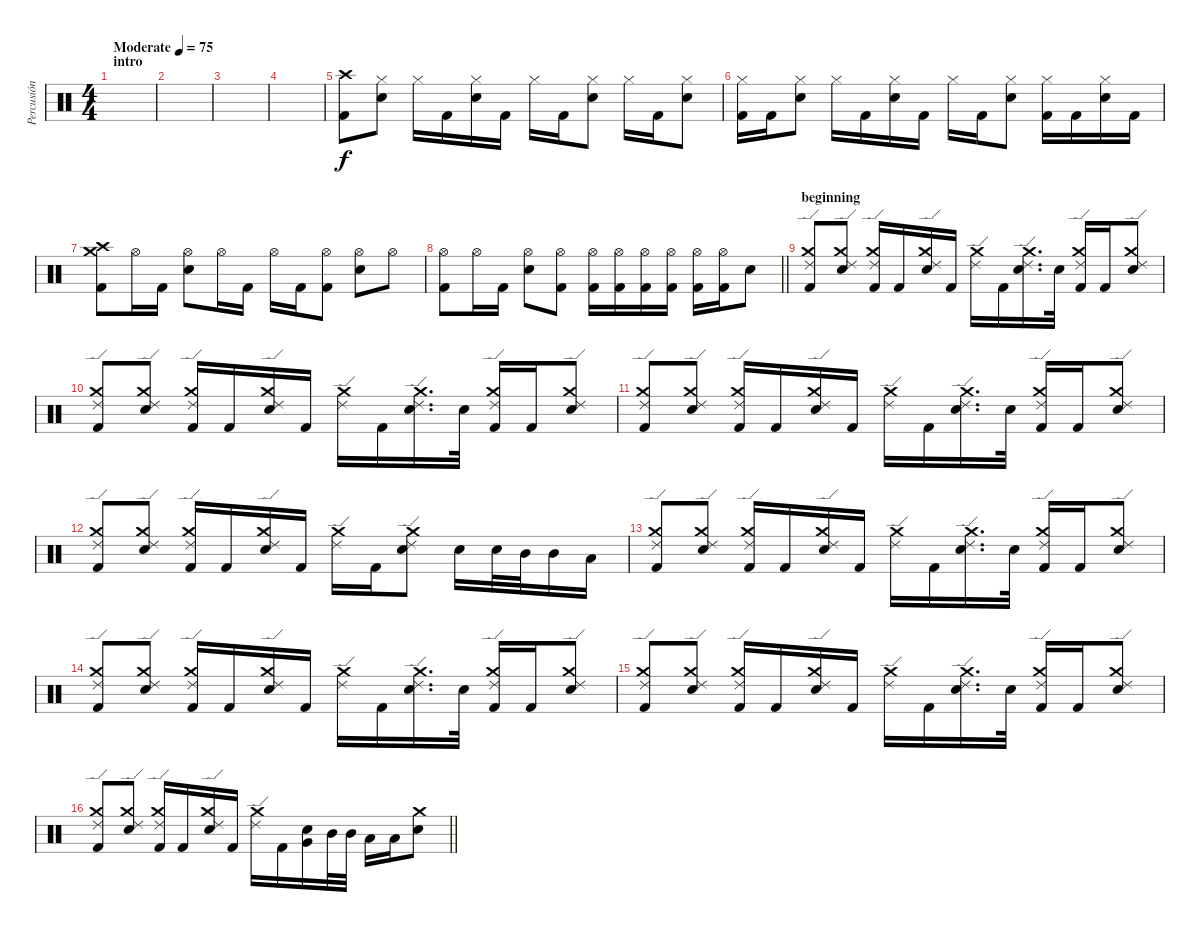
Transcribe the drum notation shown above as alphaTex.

\track ("Percusión" "Percusión") {instrument percussion}
\staff {score}
\articulation defaults
\ts (4 4)
\section ("" "intro")
\tempo (75 "Moderate")
\clef neutral
\ks c
|
|
|
|
("Kick (hit) 2" "Crash high (hit)").8 ("Electric Snare (hit)" "Hi-Hat (closed)").8 "Hi-Hat (closed)".16 "Kick (hit) 2".16 ("Electric Snare (hit)" "Hi-Hat (closed)").16 "Kick (hit) 2".16 "Hi-Hat (closed)".16 "Kick (hit) 2".16 ("Electric Snare (hit)" "Hi-Hat (closed)").8 "Hi-Hat (closed)".16 "Kick (hit) 2".16 ("Electric Snare (hit)" "Hi-Hat (closed)").8 |
("Kick (hit) 2" "Hi-Hat (closed)").16 "Kick (hit) 2".16 ("Electric Snare (hit)" "Hi-Hat (closed)").8 "Hi-Hat (closed)".16 "Kick (hit) 2".16 ("Electric Snare (hit)" "Hi-Hat (closed)").16 "Kick (hit) 2".16 "Hi-Hat (closed)".16 "Kick (hit) 2".16 ("Electric Snare (hit)" "Hi-Hat (closed)").8 ("Kick (hit) 2" "Hi-Hat (closed)").16 "Kick (hit) 2".16 ("Electric Snare (hit)" "Hi-Hat (closed)").16 "Kick (hit) 2".16 |
("Kick (hit) 2" "Crash high (hit)" "Crash medium (hit)").8 "Hi-Hat (open)".16 "Kick (hit) 2".16 ("Electric Snare (hit)" "Hi-Hat (open)").8 "Hi-Hat (open)".16 "Kick (hit) 2".16 "Hi-Hat (open)".16 "Kick (hit) 2".16 ("Kick (hit) 2" "Hi-Hat (open)").8 ("Electric Snare (hit)" "Hi-Hat (open)").8 "Hi-Hat (open)".8 |
\barLineRight lightlight
("Kick (hit) 2" "Hi-Hat (open)").8 "Hi-Hat (open)".16 "Kick (hit) 2".16 ("Electric Snare (hit)" "Hi-Hat (open)").8 ("Kick (hit) 2" "Hi-Hat (open)").8 ("Kick (hit) 2" "Hi-Hat (open)").16 ("Kick (hit) 2" "Hi-Hat (open)").16 ("Kick (hit) 2" "Hi-Hat (open)").16 ("Kick (hit) 2" "Hi-Hat (open)").16 ("Kick (hit) 2" "Hi-Hat (open)").16 ("Kick (hit) 2" "Hi-Hat (open)").16 "Electric Snare (hit)".8 |
\section ("" "beginning")
("Kick (hit) 2" "Ride (edge) 2" "Crash medium (hit)").8 ("Electric Snare (hit)" "Ride (edge) 2" "Crash medium (hit)").8 ("Kick (hit) 2" "Ride (edge) 2" "Crash medium (hit)").16 "Kick (hit) 2".16 ("Electric Snare (hit)" "Ride (edge) 2" "Crash medium (hit)").16 "Kick (hit) 2".16 ("Ride (edge) 2" "Crash medium (hit)").16 "Kick (hit) 2".16 ("Electric Snare (hit)" "Ride (edge) 2" "Crash medium (hit)").16{d} "Electric Snare (hit)".32 ("Kick (hit) 2" "Ride (edge) 2" "Crash medium (hit)").16 "Kick (hit) 2".16 ("Electric Snare (hit)" "Ride (edge) 2" "Crash medium (hit)").8 |
("Kick (hit) 2" "Ride (edge) 2" "Crash medium (hit)").8 ("Electric Snare (hit)" "Ride (edge) 2" "Crash medium (hit)").8 ("Kick (hit) 2" "Ride (edge) 2" "Crash medium (hit)").16 "Kick (hit) 2".16 ("Electric Snare (hit)" "Ride (edge) 2" "Crash medium (hit)").16 "Kick (hit) 2".16 ("Ride (edge) 2" "Crash medium (hit)").16 "Kick (hit) 2".16 ("Electric Snare (hit)" "Ride (edge) 2" "Crash medium (hit)").16{d} "Electric Snare (hit)".32 ("Kick (hit) 2" "Ride (edge) 2" "Crash medium (hit)").16 "Kick (hit) 2".16 ("Electric Snare (hit)" "Ride (edge) 2" "Crash medium (hit)").8 |
("Kick (hit) 2" "Ride (edge) 2" "Crash medium (hit)").8 ("Electric Snare (hit)" "Ride (edge) 2" "Crash medium (hit)").8 ("Kick (hit) 2" "Ride (edge) 2" "Crash medium (hit)").16 "Kick (hit) 2".16 ("Electric Snare (hit)" "Ride (edge) 2" "Crash medium (hit)").16 "Kick (hit) 2".16 ("Ride (edge) 2" "Crash medium (hit)").16 "Kick (hit) 2".16 ("Electric Snare (hit)" "Ride (edge) 2" "Crash medium (hit)").16{d} "Electric Snare (hit)".32 ("Kick (hit) 2" "Ride (edge) 2" "Crash medium (hit)").16 "Kick (hit) 2".16 ("Electric Snare (hit)" "Ride (edge) 2" "Crash medium (hit)").8 |
("Kick (hit) 2" "Ride (edge) 2" "Crash medium (hit)").8 ("Electric Snare (hit)" "Ride (edge) 2" "Crash medium (hit)").8 ("Kick (hit) 2" "Ride (edge) 2" "Crash medium (hit)").16 "Kick (hit) 2".16 ("Electric Snare (hit)" "Ride (edge) 2" "Crash medium (hit)").16 "Kick (hit) 2".16 ("Ride (edge) 2" "Crash medium (hit)").16 "Kick (hit) 2".16 ("Electric Snare (hit)" "Ride (edge) 2" "Crash medium (hit)").8 "Electric Snare (hit)".16 "Electric Snare (hit)".32 "Mid Tom (hit)".32 "Mid Tom (hit)".16 "Low Tom (hit)".16 |
("Kick (hit) 2" "Ride (edge) 2" "Crash medium (hit)").8 ("Electric Snare (hit)" "Ride (edge) 2" "Crash medium (hit)").8 ("Kick (hit) 2" "Ride (edge) 2" "Crash medium (hit)").16 "Kick (hit) 2".16 ("Electric Snare (hit)" "Ride (edge) 2" "Crash medium (hit)").16 "Kick (hit) 2".16 ("Ride (edge) 2" "Crash medium (hit)").16 "Kick (hit) 2".16 ("Electric Snare (hit)" "Ride (edge) 2" "Crash medium (hit)").16{d} "Electric Snare (hit)".32 ("Kick (hit) 2" "Ride (edge) 2" "Crash medium (hit)").16 "Kick (hit) 2".16 ("Electric Snare (hit)" "Ride (edge) 2" "Crash medium (hit)").8 |
("Kick (hit) 2" "Ride (edge) 2" "Crash medium (hit)").8 ("Electric Snare (hit)" "Ride (edge) 2" "Crash medium (hit)").8 ("Kick (hit) 2" "Ride (edge) 2" "Crash medium (hit)").16 "Kick (hit) 2".16 ("Electric Snare (hit)" "Ride (edge) 2" "Crash medium (hit)").16 "Kick (hit) 2".16 ("Ride (edge) 2" "Crash medium (hit)").16 "Kick (hit) 2".16 ("Electric Snare (hit)" "Ride (edge) 2" "Crash medium (hit)").16{d} "Electric Snare (hit)".32 ("Kick (hit) 2" "Ride (edge) 2" "Crash medium (hit)").16 "Kick (hit) 2".16 ("Electric Snare (hit)" "Ride (edge) 2" "Crash medium (hit)").8 |
("Kick (hit) 2" "Ride (edge) 2" "Crash medium (hit)").8 ("Electric Snare (hit)" "Ride (edge) 2" "Crash medium (hit)").8 ("Kick (hit) 2" "Ride (edge) 2" "Crash medium (hit)").16 "Kick (hit) 2".16 ("Electric Snare (hit)" "Ride (edge) 2" "Crash medium (hit)").16 "Kick (hit) 2".16 ("Ride (edge) 2" "Crash medium (hit)").16 "Kick (hit) 2".16 ("Electric Snare (hit)" "Ride (edge) 2" "Crash medium (hit)").16{d} "Electric Snare (hit)".32 ("Kick (hit) 2" "Ride (edge) 2" "Crash medium (hit)").16 "Kick (hit) 2".16 ("Electric Snare (hit)" "Ride (edge) 2" "Crash medium (hit)").8 |
\barLineRight lightlight
("Kick (hit) 2" "Ride (edge) 2" "Crash medium (hit)").8 ("Electric Snare (hit)" "Ride (edge) 2" "Crash medium (hit)").8 ("Kick (hit) 2" "Ride (edge) 2" "Crash medium (hit)").16 "Kick (hit) 2".16 ("Electric Snare (hit)" "Ride (edge) 2" "Crash medium (hit)").16 "Kick (hit) 2".16 ("Ride (edge) 2" "Crash medium (hit)").16 "Kick (hit) 2".16 ("Electric Snare (hit)" "Very Low Tom (hit)").16 "Mid Tom (hit)".32 "Mid Tom (hit)".32 "Low Tom (hit)".16 "Low Tom (hit)".16 ("Crash medium (hit)" "Electric Snare (hit)").8
